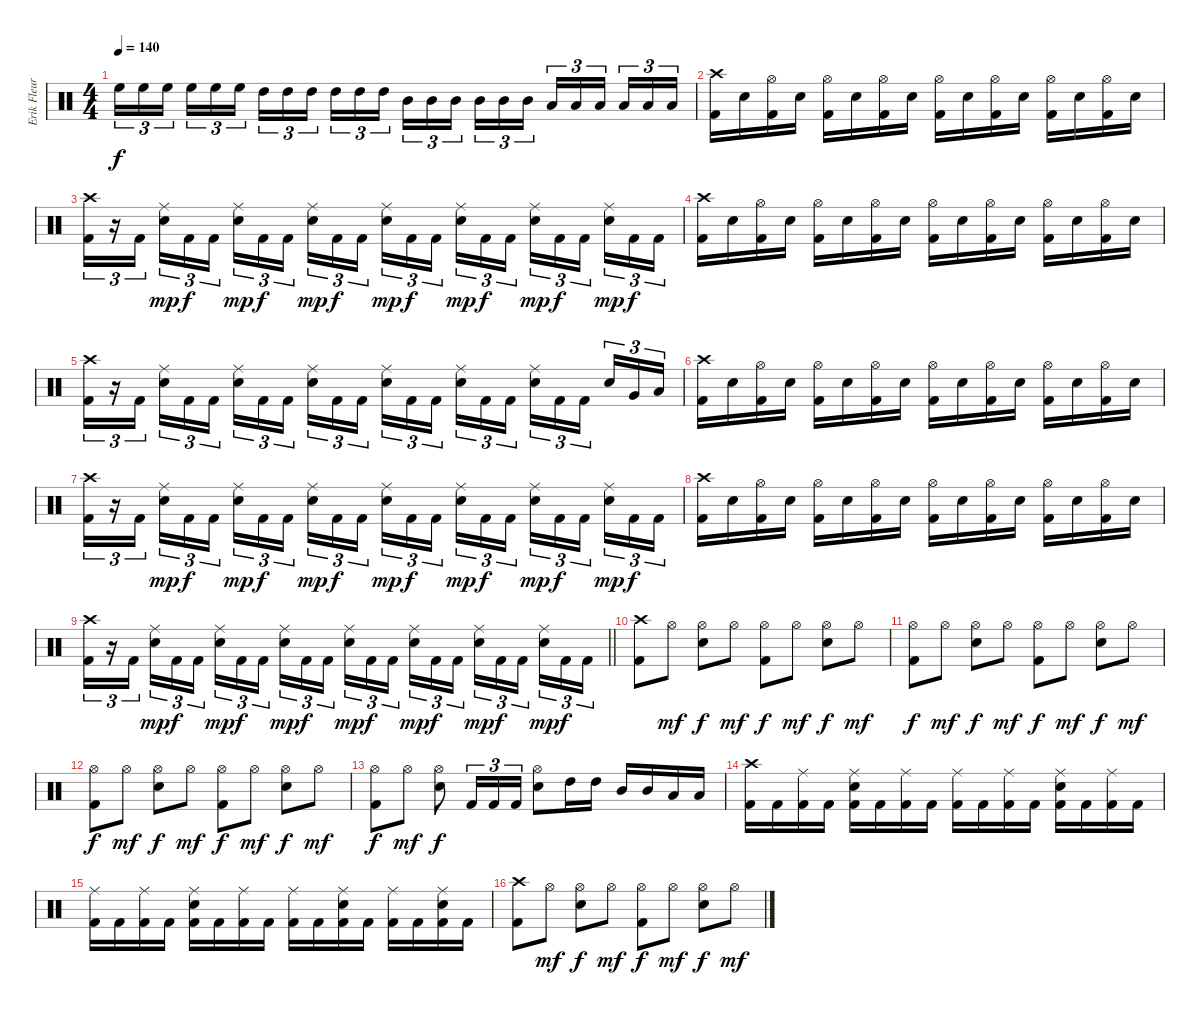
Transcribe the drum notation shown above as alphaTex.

\track ("Erik Fleuren" "Erik Fleur") {instrument percussion}
\staff {score}
\articulation defaults
\ts (4 4)
\tempo 140
\clef neutral
\ks c "High Floor Tom (hit)".16{tu (3 2) dy f} "High Floor Tom (hit)".16{tu (3 2)} "High Floor Tom (hit)".16{tu (3 2) beam splitsecondary} "High Floor Tom (hit)".16{tu (3 2)} "High Floor Tom (hit)".16{tu (3 2)} "High Floor Tom (hit)".16{tu (3 2)} "High Tom (hit)".16{tu (3 2)} "High Tom (hit)".16{tu (3 2)} "High Tom (hit)".16{tu (3 2) beam splitsecondary} "High Tom (hit)".16{tu (3 2)} "High Tom (hit)".16{tu (3 2)} "High Tom (hit)".16{tu (3 2)} "Mid Tom (hit)".16{tu (3 2)} "Mid Tom (hit)".16{tu (3 2)} "Mid Tom (hit)".16{tu (3 2) beam splitsecondary} "Mid Tom (hit)".16{tu (3 2)} "Mid Tom (hit)".16{tu (3 2)} "Mid Tom (hit)".16{tu (3 2)} "Low Tom (hit)".16{tu (3 2)} "Low Tom (hit)".16{tu (3 2)} "Low Tom (hit)".16{tu (3 2) beam splitsecondary} "Low Tom (hit)".16{tu (3 2)} "Low Tom (hit)".16{tu (3 2)} "Low Tom (hit)".16{tu (3 2)}
|
("Crash high (hit)" "Kick (hit) 2").16 "Electric Snare (hit)".16 ("Hi-Hat (open)" "Kick (hit) 2").16 "Electric Snare (hit)".16 ("Hi-Hat (open)" "Kick (hit) 2").16 "Electric Snare (hit)".16 ("Hi-Hat (open)" "Kick (hit) 2").16 "Electric Snare (hit)".16 ("Hi-Hat (open)" "Kick (hit) 2").16 "Electric Snare (hit)".16 ("Hi-Hat (open)" "Kick (hit) 2").16 "Electric Snare (hit)".16 ("Hi-Hat (open)" "Kick (hit) 2").16 "Electric Snare (hit)".16 ("Hi-Hat (open)" "Kick (hit) 2").16 "Electric Snare (hit)".16 |
("Crash high (hit)" "Kick (hit) 2").16{tu (3 2)} r.16{tu (3 2)} "Kick (hit) 2".16{tu (3 2) beam splitsecondary} ("Ride (middle)" "Electric Snare (hit)").16{tu (3 2) dy mp} "Kick (hit) 2".16{tu (3 2) dy f} "Kick (hit) 2".16{tu (3 2)} ("Ride (middle)" "Electric Snare (hit)").16{tu (3 2) dy mp} "Kick (hit) 2".16{tu (3 2) dy f} "Kick (hit) 2".16{tu (3 2) beam splitsecondary} ("Ride (middle)" "Electric Snare (hit)").16{tu (3 2) dy mp} "Kick (hit) 2".16{tu (3 2) dy f} "Kick (hit) 2".16{tu (3 2)} ("Ride (middle)" "Electric Snare (hit)").16{tu (3 2) dy mp} "Kick (hit) 2".16{tu (3 2) dy f} "Kick (hit) 2".16{tu (3 2) beam splitsecondary} ("Ride (middle)" "Electric Snare (hit)").16{tu (3 2) dy mp} "Kick (hit) 2".16{tu (3 2) dy f} "Kick (hit) 2".16{tu (3 2)} ("Ride (middle)" "Electric Snare (hit)").16{tu (3 2) dy mp} "Kick (hit) 2".16{tu (3 2) dy f} "Kick (hit) 2".16{tu (3 2) beam splitsecondary} ("Ride (middle)" "Electric Snare (hit)").16{tu (3 2) dy mp} "Kick (hit) 2".16{tu (3 2) dy f} "Kick (hit) 2".16{tu (3 2)} |
("Crash high (hit)" "Kick (hit) 2").16 "Electric Snare (hit)".16 ("Hi-Hat (open)" "Kick (hit) 2").16 "Electric Snare (hit)".16 ("Hi-Hat (open)" "Kick (hit) 2").16 "Electric Snare (hit)".16 ("Hi-Hat (open)" "Kick (hit) 2").16 "Electric Snare (hit)".16 ("Hi-Hat (open)" "Kick (hit) 2").16 "Electric Snare (hit)".16 ("Hi-Hat (open)" "Kick (hit) 2").16 "Electric Snare (hit)".16 ("Hi-Hat (open)" "Kick (hit) 2").16 "Electric Snare (hit)".16 ("Hi-Hat (open)" "Kick (hit) 2").16 "Electric Snare (hit)".16 |
("Crash high (hit)" "Kick (hit) 2").16{tu (3 2)} r.16{tu (3 2)} "Kick (hit) 2".16{tu (3 2) beam splitsecondary} ("Ride (middle)" "Electric Snare (hit)").16{tu (3 2)} "Kick (hit) 2".16{tu (3 2)} "Kick (hit) 2".16{tu (3 2)} ("Ride (middle)" "Electric Snare (hit)").16{tu (3 2)} "Kick (hit) 2".16{tu (3 2)} "Kick (hit) 2".16{tu (3 2) beam splitsecondary} ("Ride (middle)" "Electric Snare (hit)").16{tu (3 2)} "Kick (hit) 2".16{tu (3 2)} "Kick (hit) 2".16{tu (3 2)} ("Ride (middle)" "Electric Snare (hit)").16{tu (3 2)} "Kick (hit) 2".16{tu (3 2)} "Kick (hit) 2".16{tu (3 2) beam splitsecondary} ("Ride (middle)" "Electric Snare (hit)").16{tu (3 2)} "Kick (hit) 2".16{tu (3 2)} "Kick (hit) 2".16{tu (3 2)} ("Ride (middle)" "Electric Snare (hit)").16{tu (3 2)} "Kick (hit) 2".16{tu (3 2)} "Kick (hit) 2".16{tu (3 2) beam splitsecondary} "Electric Snare (hit)".16{tu (3 2)} "Very Low Tom (hit)".16{tu (3 2)} "Low Floor Tom (hit)".16{tu (3 2)} |
("Crash high (hit)" "Kick (hit) 2").16 "Electric Snare (hit)".16 ("Hi-Hat (open)" "Kick (hit) 2").16 "Electric Snare (hit)".16 ("Hi-Hat (open)" "Kick (hit) 2").16 "Electric Snare (hit)".16 ("Hi-Hat (open)" "Kick (hit) 2").16 "Electric Snare (hit)".16 ("Hi-Hat (open)" "Kick (hit) 2").16 "Electric Snare (hit)".16 ("Hi-Hat (open)" "Kick (hit) 2").16 "Electric Snare (hit)".16 ("Hi-Hat (open)" "Kick (hit) 2").16 "Electric Snare (hit)".16 ("Hi-Hat (open)" "Kick (hit) 2").16 "Electric Snare (hit)".16 |
("Crash high (hit)" "Kick (hit) 2").16{tu (3 2)} r.16{tu (3 2)} "Kick (hit) 2".16{tu (3 2) beam splitsecondary} ("Ride (middle)" "Electric Snare (hit)").16{tu (3 2) dy mp} "Kick (hit) 2".16{tu (3 2) dy f} "Kick (hit) 2".16{tu (3 2)} ("Ride (middle)" "Electric Snare (hit)").16{tu (3 2) dy mp} "Kick (hit) 2".16{tu (3 2) dy f} "Kick (hit) 2".16{tu (3 2) beam splitsecondary} ("Ride (middle)" "Electric Snare (hit)").16{tu (3 2) dy mp} "Kick (hit) 2".16{tu (3 2) dy f} "Kick (hit) 2".16{tu (3 2)} ("Ride (middle)" "Electric Snare (hit)").16{tu (3 2) dy mp} "Kick (hit) 2".16{tu (3 2) dy f} "Kick (hit) 2".16{tu (3 2) beam splitsecondary} ("Ride (middle)" "Electric Snare (hit)").16{tu (3 2) dy mp} "Kick (hit) 2".16{tu (3 2) dy f} "Kick (hit) 2".16{tu (3 2)} ("Ride (middle)" "Electric Snare (hit)").16{tu (3 2) dy mp} "Kick (hit) 2".16{tu (3 2) dy f} "Kick (hit) 2".16{tu (3 2) beam splitsecondary} ("Ride (middle)" "Electric Snare (hit)").16{tu (3 2) dy mp} "Kick (hit) 2".16{tu (3 2) dy f} "Kick (hit) 2".16{tu (3 2)} |
("Crash high (hit)" "Kick (hit) 2").16 "Electric Snare (hit)".16 ("Hi-Hat (open)" "Kick (hit) 2").16 "Electric Snare (hit)".16 ("Hi-Hat (open)" "Kick (hit) 2").16 "Electric Snare (hit)".16 ("Hi-Hat (open)" "Kick (hit) 2").16 "Electric Snare (hit)".16 ("Hi-Hat (open)" "Kick (hit) 2").16 "Electric Snare (hit)".16 ("Hi-Hat (open)" "Kick (hit) 2").16 "Electric Snare (hit)".16 ("Hi-Hat (open)" "Kick (hit) 2").16 "Electric Snare (hit)".16 ("Hi-Hat (open)" "Kick (hit) 2").16 "Electric Snare (hit)".16 |
\barLineRight lightlight
("Crash high (hit)" "Kick (hit) 2").16{tu (3 2)} r.16{tu (3 2)} "Kick (hit) 2".16{tu (3 2) beam splitsecondary} ("Ride (middle)" "Electric Snare (hit)").16{tu (3 2) dy mp} "Kick (hit) 2".16{tu (3 2) dy f} "Kick (hit) 2".16{tu (3 2)} ("Ride (middle)" "Electric Snare (hit)").16{tu (3 2) dy mp} "Kick (hit) 2".16{tu (3 2) dy f} "Kick (hit) 2".16{tu (3 2) beam splitsecondary} ("Ride (middle)" "Electric Snare (hit)").16{tu (3 2) dy mp} "Kick (hit) 2".16{tu (3 2) dy f} "Kick (hit) 2".16{tu (3 2)} ("Ride (middle)" "Electric Snare (hit)").16{tu (3 2) dy mp} "Kick (hit) 2".16{tu (3 2) dy f} "Kick (hit) 2".16{tu (3 2) beam splitsecondary} ("Ride (middle)" "Electric Snare (hit)").16{tu (3 2) dy mp} "Kick (hit) 2".16{tu (3 2) dy f} "Kick (hit) 2".16{tu (3 2)} ("Ride (middle)" "Electric Snare (hit)").16{tu (3 2) dy mp} "Kick (hit) 2".16{tu (3 2) dy f} "Kick (hit) 2".16{tu (3 2) beam splitsecondary} ("Ride (middle)" "Electric Snare (hit)").16{tu (3 2) dy mp} "Kick (hit) 2".16{tu (3 2) dy f} "Kick (hit) 2".16{tu (3 2)} |
("Crash high (hit)" "Kick (hit) 2").8 "Hi-Hat (open)".8{dy mf} ("Hi-Hat (open)" "Electric Snare (hit)").8{dy f} "Hi-Hat (open)".8{dy mf} ("Hi-Hat (open)" "Kick (hit) 2").8{dy f} "Hi-Hat (open)".8{dy mf} ("Hi-Hat (open)" "Electric Snare (hit)").8{dy f} "Hi-Hat (open)".8{dy mf} |
("Hi-Hat (open)" "Kick (hit) 2").8{dy f} "Hi-Hat (open)".8{dy mf} ("Hi-Hat (open)" "Electric Snare (hit)").8{dy f} "Hi-Hat (open)".8{dy mf} ("Hi-Hat (open)" "Kick (hit) 2").8{dy f} "Hi-Hat (open)".8{dy mf} ("Hi-Hat (open)" "Electric Snare (hit)").8{dy f} "Hi-Hat (open)".8{dy mf} |
("Hi-Hat (open)" "Kick (hit) 2").8{dy f} "Hi-Hat (open)".8{dy mf} ("Hi-Hat (open)" "Electric Snare (hit)").8{dy f} "Hi-Hat (open)".8{dy mf} ("Hi-Hat (open)" "Kick (hit) 2").8{dy f} "Hi-Hat (open)".8{dy mf} ("Hi-Hat (open)" "Electric Snare (hit)").8{dy f} "Hi-Hat (open)".8{dy mf} |
("Hi-Hat (open)" "Kick (hit) 2").8{dy f} "Hi-Hat (open)".8{dy mf} ("Hi-Hat (open)" "Electric Snare (hit)").8{dy f} "Kick (hit) 2".16{tu (3 2)} "Kick (hit) 2".16{tu (3 2)} "Kick (hit) 2".16{tu (3 2)} ("Hi-Hat (open)" "Electric Snare (hit)").8 "High Tom (hit)".16 "High Tom (hit)".16 "Mid Tom (hit)".16 "Mid Tom (hit)".16 "Low Tom (hit)".16 "Low Tom (hit)".16 |
("Crash high (hit)" "Kick (hit) 2").16 "Kick (hit) 2".16 ("Ride (middle)" "Kick (hit) 2").16 "Kick (hit) 2".16 ("Ride (middle)" "Electric Snare (hit)" "Kick (hit) 2").16 "Kick (hit) 2".16 ("Ride (middle)" "Kick (hit) 2").16 "Kick (hit) 2".16 ("Ride (middle)" "Kick (hit) 2").16 "Kick (hit) 2".16 ("Ride (middle)" "Kick (hit) 2").16 "Kick (hit) 2".16 ("Ride (middle)" "Electric Snare (hit)" "Kick (hit) 2").16 "Kick (hit) 2".16 ("Ride (middle)" "Kick (hit) 2").16 "Kick (hit) 2".16 |
("Ride (middle)" "Kick (hit) 2").16 "Kick (hit) 2".16 ("Ride (middle)" "Kick (hit) 2").16 "Kick (hit) 2".16 ("Ride (middle)" "Electric Snare (hit)" "Kick (hit) 2").16 "Kick (hit) 2".16 ("Ride (middle)" "Kick (hit) 2").16 "Kick (hit) 2".16 ("Ride (middle)" "Kick (hit) 2").16 "Kick (hit) 2".16 ("Ride (middle)" "Electric Snare (hit)" "Kick (hit) 2").16 "Kick (hit) 2".16 ("Ride (middle)" "Kick (hit) 2").16 "Kick (hit) 2".16 ("Ride (middle)" "Electric Snare (hit)" "Kick (hit) 2").16 "Kick (hit) 2".16 |
("Crash high (hit)" "Kick (hit) 2").8 "Hi-Hat (open)".8{dy mf} ("Hi-Hat (open)" "Electric Snare (hit)").8{dy f} "Hi-Hat (open)".8{dy mf} ("Hi-Hat (open)" "Kick (hit) 2").8{dy f} "Hi-Hat (open)".8{dy mf} ("Hi-Hat (open)" "Electric Snare (hit)").8{dy f} "Hi-Hat (open)".8{dy mf}
